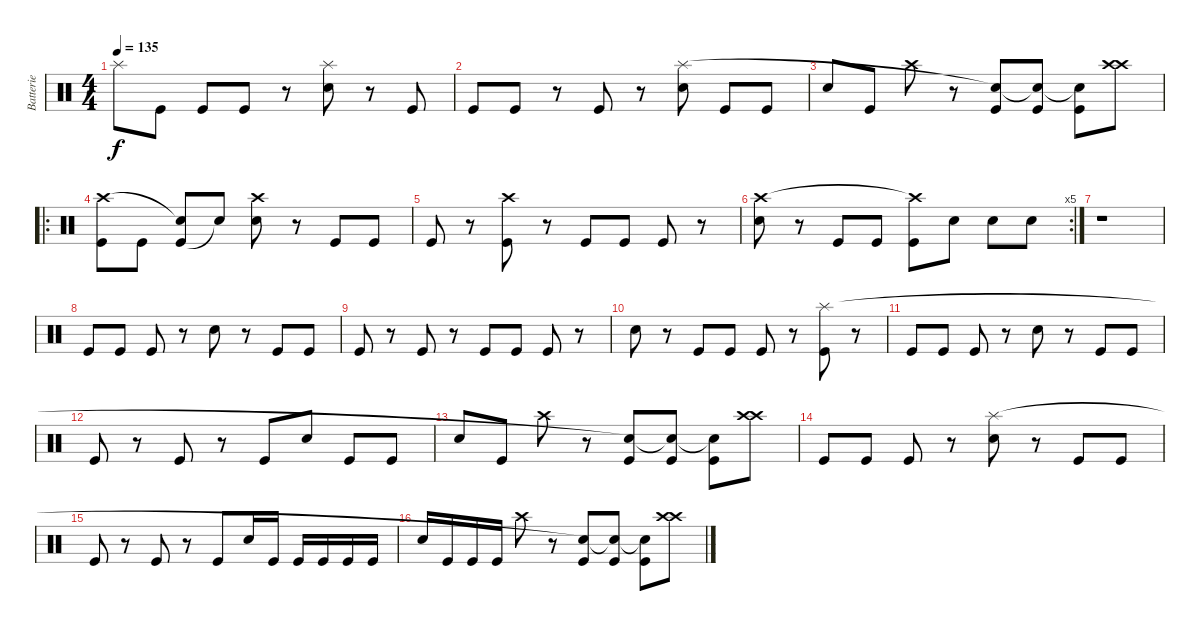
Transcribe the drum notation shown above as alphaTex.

\track ("Batterie" "Batterie") {instrument percussion}
\staff {score}
\articulation defaults
\ts (4 4)
\tempo 135
\clef neutral
\ks c "Splash (hit)".8{dy f} "Kick (hit)".8 "Kick (hit)".8 "Kick (hit)".8
r.8 ("Electric Snare (hit)" "Splash (hit)").8 r.8 "Kick (hit)".8 |
"Kick (hit)".8 "Kick (hit)".8 r.8 "Kick (hit)".8 r.8 ("Electric Snare (hit)" "Splash (hit)").8 "Kick (hit)".8 "Kick (hit)".8 |
"Electric Snare (hit)".8 "Kick (hit)".8 "Crash high (hit)".8 r.8 ("Kick (hit)" "Snare (hit)"{t}).8 ("Kick (hit)" "Snare (hit)"{t}).8 ("Kick (hit)" "Snare (hit)"{t}).8 ("Crash high (hit)" "Crash high (hit)").8 |
\ro
("Kick (hit)" "Crash high (hit)").8 "Kick (hit)".8 ("Kick (hit)" "Snare (hit)"{t}).8 "Snare (hit)"{t}.8 ("Electric Snare (hit)" "Crash high (hit)").8 r.8 "Kick (hit)".8 "Kick (hit)".8 |
"Kick (hit)".8 r.8 ("Kick (hit)" "Crash high (hit)").8 r.8 "Kick (hit)".8 "Kick (hit)".8 "Kick (hit)".8 r.8 |
\rc 5
("Electric Snare (hit)" "Crash high (hit)").8 r.8 "Kick (hit)".8 "Kick (hit)".8 ("Kick (hit)" "Crash high (hit)"{t}).8 "Electric Snare (hit)".8 "Electric Snare (hit)".8 "Electric Snare (hit)".8 |
r.1 |
"Kick (hit)".8 "Kick (hit)".8 "Kick (hit)".8 r.8 "Electric Snare (hit)".8 r.8 "Kick (hit)".8 "Kick (hit)".8 |
"Kick (hit)".8 r.8 "Kick (hit)".8 r.8 "Kick (hit)".8 "Kick (hit)".8 "Kick (hit)".8 r.8 |
"Electric Snare (hit)".8 r.8 "Kick (hit)".8 "Kick (hit)".8 "Kick (hit)".8 r.8 ("Kick (hit)" "Splash (hit)").8 r.8 |
"Kick (hit)".8 "Kick (hit)".8 "Kick (hit)".8 r.8 "Electric Snare (hit)".8 r.8 "Kick (hit)".8 "Kick (hit)".8 |
"Kick (hit)".8 r.8 "Kick (hit)".8 r.8 "Kick (hit)".8 "Electric Snare (hit)".8 "Kick (hit)".8 "Kick (hit)".8 |
"Electric Snare (hit)".8 "Kick (hit)".8 "Crash high (hit)".8 r.8 ("Kick (hit)" "Snare (hit)"{t}).8 ("Kick (hit)" "Snare (hit)"{t}).8 ("Kick (hit)" "Snare (hit)"{t}).8 ("Crash high (hit)" "Crash high (hit)").8 |
"Kick (hit)".8 "Kick (hit)".8 "Kick (hit)".8 r.8 ("Electric Snare (hit)" "Splash (hit)").8 r.8 "Kick (hit)".8 "Kick (hit)".8 |
"Kick (hit)".8 r.8 "Kick (hit)".8 r.8 "Kick (hit)".8 "Electric Snare (hit)".16 "Kick (hit)".16 "Kick (hit)".16 "Kick (hit)".16 "Kick (hit)".16 "Kick (hit)".16 |
"Electric Snare (hit)".16 "Kick (hit)".16 "Kick (hit)".16 "Kick (hit)".16 "Crash high (hit)".8 r.8 ("Kick (hit)" "Snare (hit)"{t}).8 ("Kick (hit)" "Snare (hit)"{t}).8 ("Kick (hit)" "Snare (hit)"{t}).8 ("Crash high (hit)" "Crash high (hit)").8
